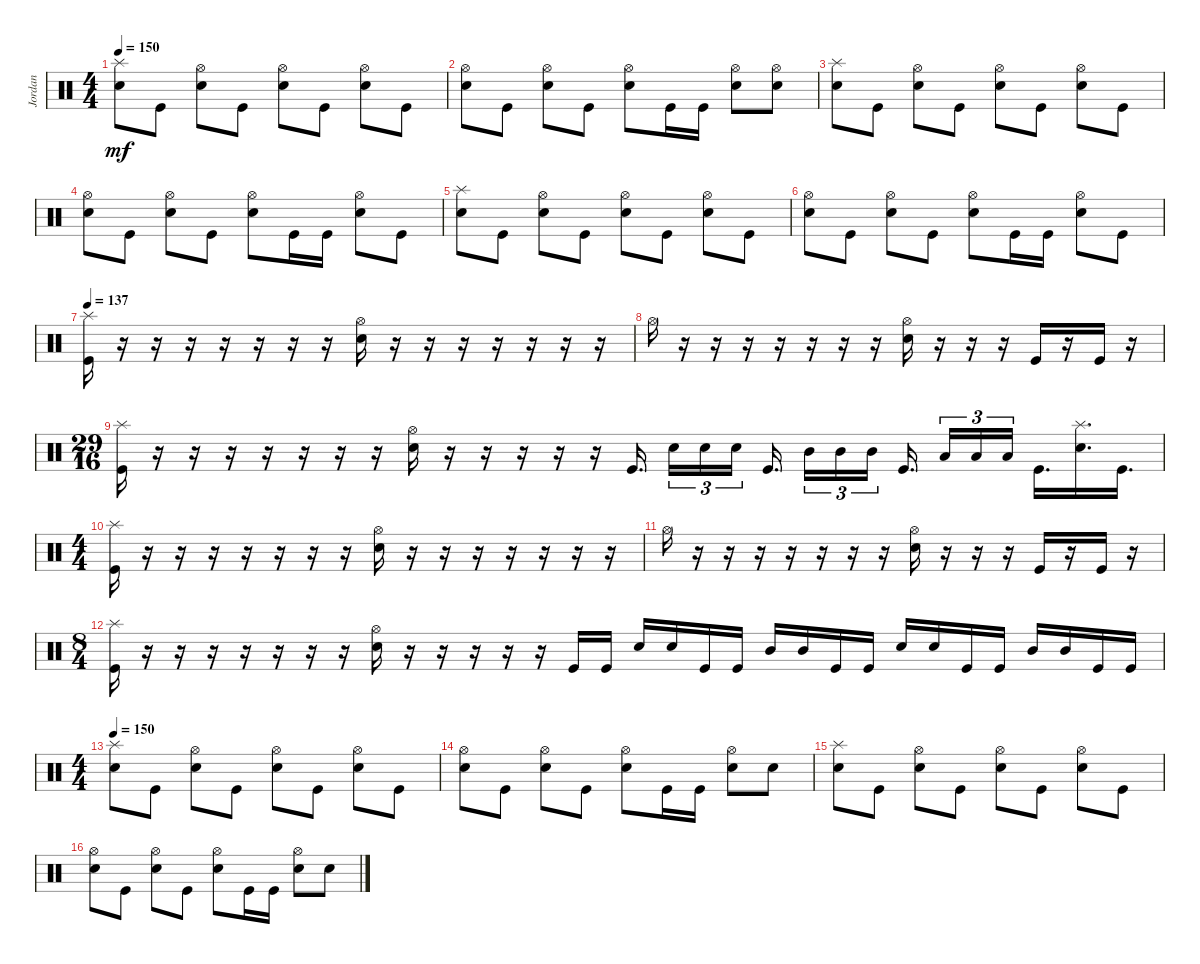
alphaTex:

\track ("Jordan" "Jordan") {instrument percussion}
\staff {score}
\articulation defaults
\ts (4 4)
\tempo 150
\clef neutral
\ks c
("Snare (hit) 2" "Splash (hit)").8{dy mf} "Kick (hit)".8 ("Snare (hit) 2" "Hi-Hat (open)").8 "Kick (hit)".8 ("Snare (hit) 2" "Hi-Hat (open)").8 "Kick (hit)".8 ("Snare (hit) 2" "Hi-Hat (open)").8 "Kick (hit)".8 |
("Snare (hit) 2" "Hi-Hat (open)").8 "Kick (hit)".8 ("Snare (hit) 2" "Hi-Hat (open)").8 "Kick (hit)".8 ("Snare (hit) 2" "Hi-Hat (open)").8 "Kick (hit)".16 "Kick (hit)".16 ("Snare (hit) 2" "Hi-Hat (open)").8 ("Snare (hit) 2" "Hi-Hat (open)").8 |
("Snare (hit) 2" "Splash (hit)").8 "Kick (hit)".8 ("Snare (hit) 2" "Hi-Hat (open)").8 "Kick (hit)".8 ("Snare (hit) 2" "Hi-Hat (open)").8 "Kick (hit)".8 ("Snare (hit) 2" "Hi-Hat (open)").8 "Kick (hit)".8 |
("Snare (hit) 2" "Hi-Hat (open)").8 "Kick (hit)".8 ("Snare (hit) 2" "Hi-Hat (open)").8 "Kick (hit)".8 ("Snare (hit) 2" "Hi-Hat (open)").8 "Kick (hit)".16 "Kick (hit)".16 ("Snare (hit) 2" "Hi-Hat (open)").8 "Kick (hit)".8 |
("Snare (hit) 2" "Splash (hit)").8 "Kick (hit)".8 ("Snare (hit) 2" "Hi-Hat (open)").8 "Kick (hit)".8 ("Snare (hit) 2" "Hi-Hat (open)").8 "Kick (hit)".8 ("Snare (hit) 2" "Hi-Hat (open)").8 "Kick (hit)".8 |
("Snare (hit) 2" "Hi-Hat (open)").8 "Kick (hit)".8 ("Snare (hit) 2" "Hi-Hat (open)").8 "Kick (hit)".8 ("Snare (hit) 2" "Hi-Hat (open)").8 "Kick (hit)".16 "Kick (hit)".16 ("Snare (hit) 2" "Hi-Hat (open)").8 "Kick (hit)".8 |
\tempo 137
("Kick (hit)" "Splash (hit)").16 r.16 r.16 r.16 r.16 r.16 r.16 r.16 ("Snare (hit) 2" "Hi-Hat (open)").16 r.16 r.16 r.16 r.16 r.16 r.16 r.16 |
"Hi-Hat (open)".16 r.16 r.16 r.16 r.16 r.16 r.16 r.16 ("Snare (hit) 2" "Hi-Hat (open)").16 r.16 r.16 r.16 "Kick (hit)".16 r.16 "Kick (hit)".16 r.16 |
\ts (29 16)
("Kick (hit)" "Splash (hit)").16 r.16 r.16 r.16 r.16 r.16 r.16 r.16 ("Snare (hit) 2" "Hi-Hat (open)").16 r.16 r.16 r.16 r.16 r.16 "Kick (hit)".16{d} "Snare (hit) 2".16{tu (3 2)} "Snare (hit) 2".16{tu (3 2)} "Snare (hit) 2".16{tu (3 2)} "Kick (hit)".16{d} "Mid Tom (hit)".16{tu (3 2)} "Mid Tom (hit)".16{tu (3 2)} "Mid Tom (hit)".16{tu (3 2)} "Kick (hit)".16{d} "Low Tom (hit)".16{tu (3 2)} "Low Tom (hit)".16{tu (3 2)} "Low Tom (hit)".16{tu (3 2)} "Kick (hit)".16{d} ("Snare (hit) 2" "Splash (hit)").16{d} "Kick (hit)".16{d} |
\ts (4 4)
("Kick (hit)" "Splash (hit)").16 r.16 r.16 r.16 r.16 r.16 r.16 r.16 ("Snare (hit) 2" "Hi-Hat (open)").16 r.16 r.16 r.16 r.16 r.16 r.16 r.16 |
"Hi-Hat (open)".16 r.16 r.16 r.16 r.16 r.16 r.16 r.16 ("Snare (hit) 2" "Hi-Hat (open)").16 r.16 r.16 r.16 "Kick (hit)".16 r.16 "Kick (hit)".16 r.16 |
\ts (8 4)
("Kick (hit)" "Splash (hit)").16 r.16 r.16 r.16 r.16 r.16 r.16 r.16 ("Snare (hit) 2" "Hi-Hat (open)").16 r.16 r.16 r.16 r.16 r.16 "Kick (hit)".16 "Kick (hit)".16 "Snare (hit) 2".16 "Snare (hit) 2".16 "Kick (hit)".16 "Kick (hit)".16 "Mid Tom (hit)".16 "Mid Tom (hit)".16 "Kick (hit)".16 "Kick (hit)".16 "Snare (hit) 2".16 "Snare (hit) 2".16 "Kick (hit)".16 "Kick (hit)".16 "Mid Tom (hit)".16 "Mid Tom (hit)".16 "Kick (hit)".16 "Kick (hit)".16 |
\ts (4 4)
\tempo 150
("Snare (hit) 2" "Splash (hit)").8 "Kick (hit)".8 ("Snare (hit) 2" "Hi-Hat (open)").8 "Kick (hit)".8 ("Snare (hit) 2" "Hi-Hat (open)").8 "Kick (hit)".8 ("Snare (hit) 2" "Hi-Hat (open)").8 "Kick (hit)".8 |
("Snare (hit) 2" "Hi-Hat (open)").8 "Kick (hit)".8 ("Snare (hit) 2" "Hi-Hat (open)").8 "Kick (hit)".8 ("Snare (hit) 2" "Hi-Hat (open)").8 "Kick (hit)".16 "Kick (hit)".16 ("Snare (hit) 2" "Hi-Hat (open)").8 "Snare (hit) 2".8 |
("Snare (hit) 2" "Splash (hit)").8 "Kick (hit)".8 ("Snare (hit) 2" "Hi-Hat (open)").8 "Kick (hit)".8 ("Snare (hit) 2" "Hi-Hat (open)").8 "Kick (hit)".8 ("Snare (hit) 2" "Hi-Hat (open)").8 "Kick (hit)".8 |
("Snare (hit) 2" "Hi-Hat (open)").8 "Kick (hit)".8 ("Snare (hit) 2" "Hi-Hat (open)").8 "Kick (hit)".8 ("Snare (hit) 2" "Hi-Hat (open)").8 "Kick (hit)".16 "Kick (hit)".16 ("Snare (hit) 2" "Hi-Hat (open)").8 "Snare (hit) 2".8
